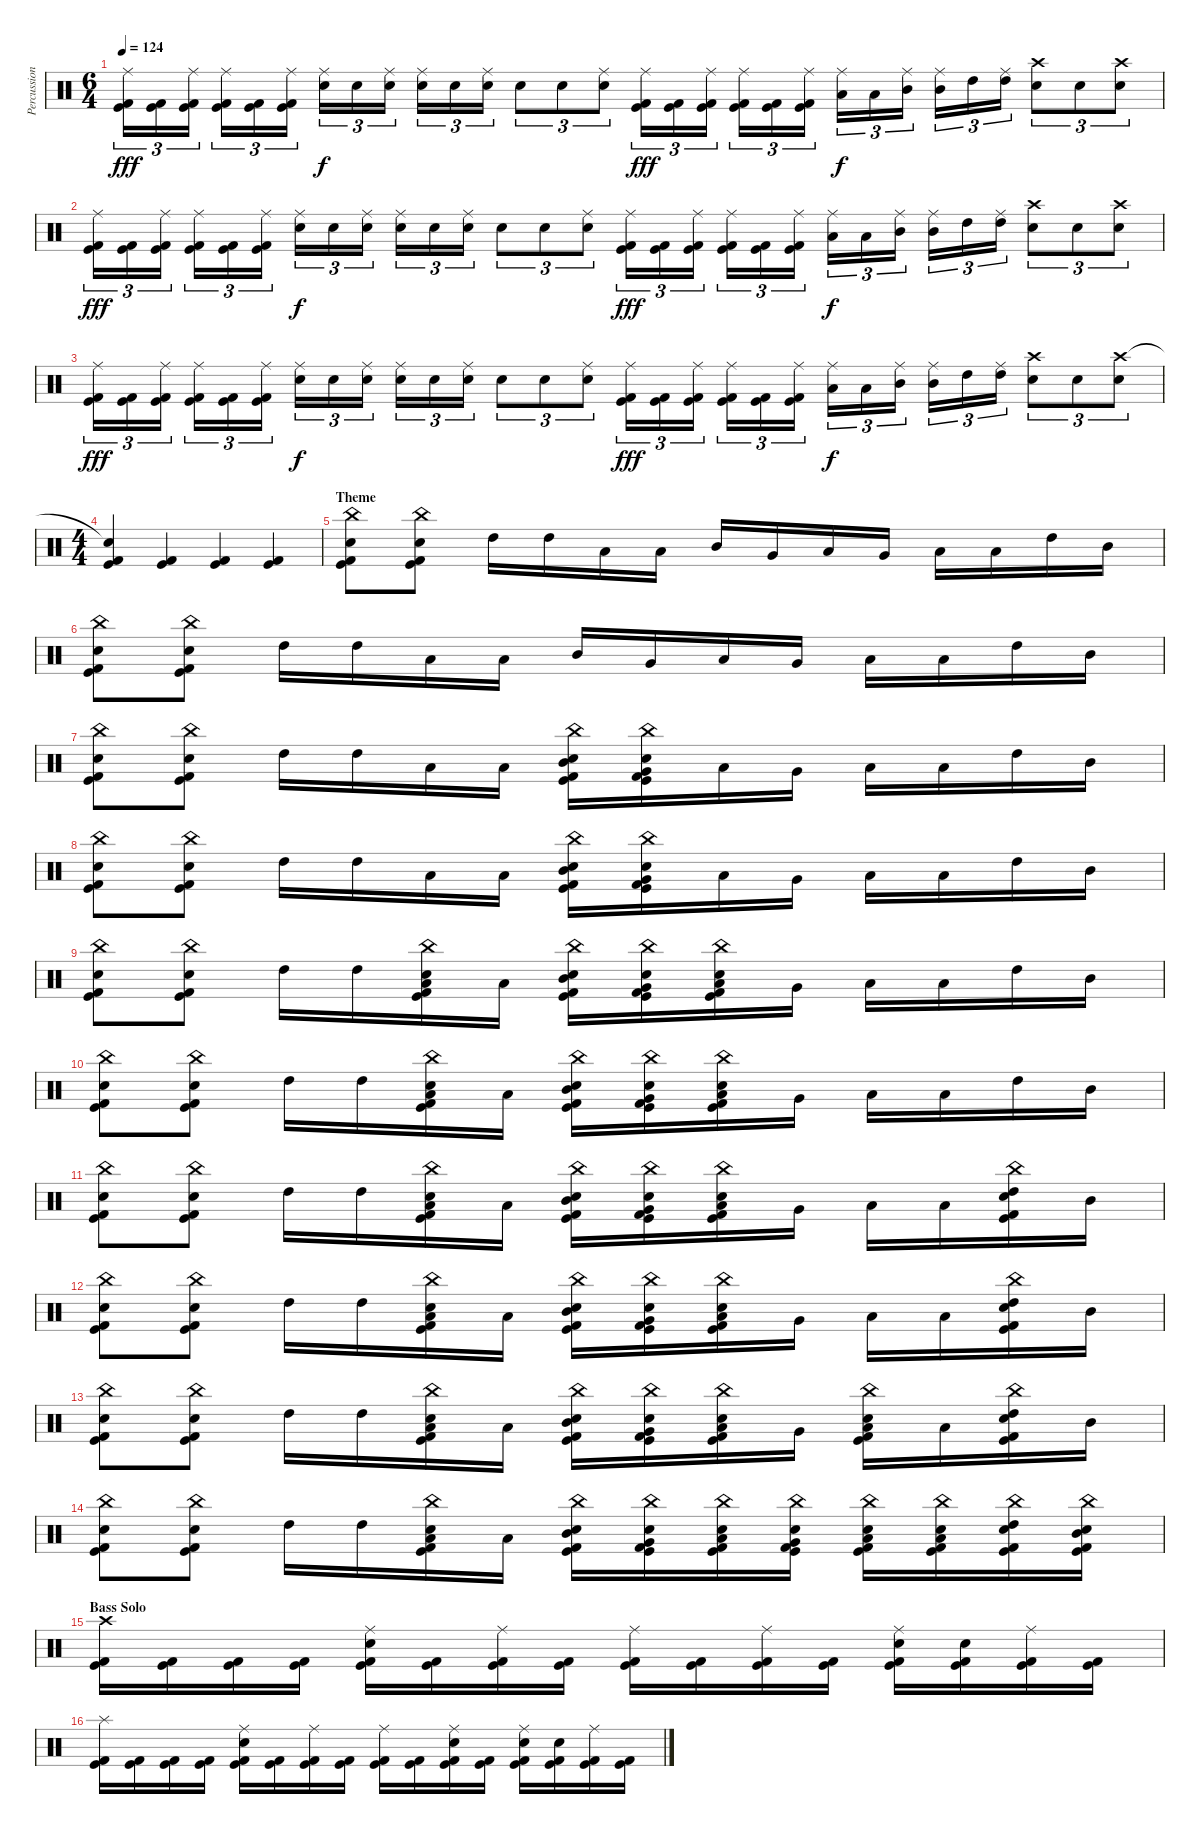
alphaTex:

\track ("Percussion" "Percussion") {instrument percussion}
\staff {score}
\articulation defaults
\ts (6 4)
\tempo 124
\clef neutral
\ks c
("Ride (middle)" "Kick (hit) 2" "Kick (hit)").16{tu (3 2) dy fff} ("Kick (hit) 2" "Kick (hit)").16{tu (3 2)} ("Ride (middle)" "Kick (hit) 2" "Kick (hit)").16{tu (3 2)} ("Ride (middle)" "Kick (hit) 2" "Kick (hit)").16{tu (3 2)} ("Kick (hit) 2" "Kick (hit)").16{tu (3 2)} ("Ride (middle)" "Kick (hit) 2" "Kick (hit)").16{tu (3 2)} ("Ride (middle)" "Snare (hit) 2").16{tu (3 2) dy f} "Snare (hit) 2".16{tu (3 2)} ("Ride (middle)" "Snare (hit) 2").16{tu (3 2)} ("Ride (middle)" "Snare (hit) 2").16{tu (3 2)} "Snare (hit) 2".16{tu (3 2)} ("Ride (middle)" "Snare (hit) 2").16{tu (3 2)} "Snare (hit) 2".8{tu (3 2)} "Snare (hit) 2".8{tu (3 2)} ("Ride (middle)" "Snare (hit) 2").8{tu (3 2)} ("Ride (middle)" "Kick (hit) 2" "Kick (hit)").16{tu (3 2) dy fff} ("Kick (hit) 2" "Kick (hit)").16{tu (3 2)} ("Ride (middle)" "Kick (hit) 2" "Kick (hit)").16{tu (3 2)} ("Ride (middle)" "Kick (hit) 2" "Kick (hit)").16{tu (3 2)} ("Kick (hit) 2" "Kick (hit)").16{tu (3 2)} ("Ride (middle)" "Kick (hit) 2" "Kick (hit)").16{tu (3 2)} ("Ride (middle)" "Low Tom (hit)").16{tu (3 2) dy f} "Low Tom (hit)".16{tu (3 2)} ("Ride (middle)" "Mid Tom (hit)").16{tu (3 2)} ("Ride (middle)" "Mid Tom (hit)").16{tu (3 2)} "High Tom (hit)".16{tu (3 2)} ("Ride (middle)" "High Tom (hit)").16{tu (3 2)} ("Crash high (hit)" "Snare (hit) 2").8{tu (3 2)} "Snare (hit) 2".8{tu (3 2)} ("Crash high (hit)" "Snare (hit) 2").8{tu (3 2)} |
("Ride (middle)" "Kick (hit) 2" "Kick (hit)").16{tu (3 2) dy fff} ("Kick (hit) 2" "Kick (hit)").16{tu (3 2)} ("Ride (middle)" "Kick (hit) 2" "Kick (hit)").16{tu (3 2)} ("Ride (middle)" "Kick (hit) 2" "Kick (hit)").16{tu (3 2)} ("Kick (hit) 2" "Kick (hit)").16{tu (3 2)} ("Ride (middle)" "Kick (hit) 2" "Kick (hit)").16{tu (3 2)} ("Ride (middle)" "Snare (hit) 2").16{tu (3 2) dy f} "Snare (hit) 2".16{tu (3 2)} ("Ride (middle)" "Snare (hit) 2").16{tu (3 2)} ("Ride (middle)" "Snare (hit) 2").16{tu (3 2)} "Snare (hit) 2".16{tu (3 2)} ("Ride (middle)" "Snare (hit) 2").16{tu (3 2)} "Snare (hit) 2".8{tu (3 2)} "Snare (hit) 2".8{tu (3 2)} ("Ride (middle)" "Snare (hit) 2").8{tu (3 2)} ("Ride (middle)" "Kick (hit) 2" "Kick (hit)").16{tu (3 2) dy fff} ("Kick (hit) 2" "Kick (hit)").16{tu (3 2)} ("Ride (middle)" "Kick (hit) 2" "Kick (hit)").16{tu (3 2)} ("Ride (middle)" "Kick (hit) 2" "Kick (hit)").16{tu (3 2)} ("Kick (hit) 2" "Kick (hit)").16{tu (3 2)} ("Ride (middle)" "Kick (hit) 2" "Kick (hit)").16{tu (3 2)} ("Ride (middle)" "Low Tom (hit)").16{tu (3 2) dy f} "Low Tom (hit)".16{tu (3 2)} ("Ride (middle)" "Mid Tom (hit)").16{tu (3 2)} ("Ride (middle)" "Mid Tom (hit)").16{tu (3 2)} "High Tom (hit)".16{tu (3 2)} ("Ride (middle)" "High Tom (hit)").16{tu (3 2)} ("Crash high (hit)" "Snare (hit) 2").8{tu (3 2)} "Snare (hit) 2".8{tu (3 2)} ("Crash high (hit)" "Snare (hit) 2").8{tu (3 2)} |
("Ride (middle)" "Kick (hit) 2" "Kick (hit)").16{tu (3 2) dy fff} ("Kick (hit) 2" "Kick (hit)").16{tu (3 2)} ("Ride (middle)" "Kick (hit) 2" "Kick (hit)").16{tu (3 2)} ("Ride (middle)" "Kick (hit) 2" "Kick (hit)").16{tu (3 2)} ("Kick (hit) 2" "Kick (hit)").16{tu (3 2)} ("Ride (middle)" "Kick (hit) 2" "Kick (hit)").16{tu (3 2)} ("Ride (middle)" "Snare (hit) 2").16{tu (3 2) dy f} "Snare (hit) 2".16{tu (3 2)} ("Ride (middle)" "Snare (hit) 2").16{tu (3 2)} ("Ride (middle)" "Snare (hit) 2").16{tu (3 2)} "Snare (hit) 2".16{tu (3 2)} ("Ride (middle)" "Snare (hit) 2").16{tu (3 2)} "Snare (hit) 2".8{tu (3 2)} "Snare (hit) 2".8{tu (3 2)} ("Ride (middle)" "Snare (hit) 2").8{tu (3 2)} ("Ride (middle)" "Kick (hit) 2" "Kick (hit)").16{tu (3 2) dy fff} ("Kick (hit) 2" "Kick (hit)").16{tu (3 2)} ("Ride (middle)" "Kick (hit) 2" "Kick (hit)").16{tu (3 2)} ("Ride (middle)" "Kick (hit) 2" "Kick (hit)").16{tu (3 2)} ("Kick (hit) 2" "Kick (hit)").16{tu (3 2)} ("Ride (middle)" "Kick (hit) 2" "Kick (hit)").16{tu (3 2)} ("Ride (middle)" "Low Tom (hit)").16{tu (3 2) dy f} "Low Tom (hit)".16{tu (3 2)} ("Ride (middle)" "Mid Tom (hit)").16{tu (3 2)} ("Ride (middle)" "Mid Tom (hit)").16{tu (3 2)} "High Tom (hit)".16{tu (3 2)} ("Ride (middle)" "High Tom (hit)").16{tu (3 2)} ("Crash high (hit)" "Snare (hit) 2").8{tu (3 2)} "Snare (hit) 2".8{tu (3 2)} ("Crash high (hit)" "Snare (hit) 2").8{tu (3 2)} |
\ts (4 4)
("Snare (hit)"{t} "Kick (hit) 2" "Kick (hit)").4 ("Kick (hit) 2" "Kick (hit)").4 ("Kick (hit) 2" "Kick (hit)").4 ("Kick (hit) 2" "Kick (hit)").4 |
\section ("" "Theme")
("China (hit)" "Snare (hit) 2" "Kick (hit) 2" "Kick (hit)").8 ("China (hit)" "Snare (hit) 2" "Kick (hit) 2" "Kick (hit)").8 "High Tom (hit)".16 "High Tom (hit)".16 "Low Tom (hit)".16 "Low Tom (hit)".16 "Mid Tom (hit)".16 "Very Low Tom (hit)".16 "Low Floor Tom (hit)".16 "Very Low Tom (hit)".16 "Low Tom (hit)".16 "Low Tom (hit)".16 "High Tom (hit)".16 "Mid Tom (hit)".16 |
("China (hit)" "Snare (hit) 2" "Kick (hit) 2" "Kick (hit)").8 ("China (hit)" "Snare (hit) 2" "Kick (hit) 2" "Kick (hit)").8 "High Tom (hit)".16 "High Tom (hit)".16 "Low Tom (hit)".16 "Low Tom (hit)".16 "Mid Tom (hit)".16 "Very Low Tom (hit)".16 "Low Floor Tom (hit)".16 "Very Low Tom (hit)".16 "Low Tom (hit)".16 "Low Tom (hit)".16 "High Tom (hit)".16 "Mid Tom (hit)".16 |
("China (hit)" "Snare (hit) 2" "Kick (hit) 2" "Kick (hit)").8 ("China (hit)" "Snare (hit) 2" "Kick (hit) 2" "Kick (hit)").8 "High Tom (hit)".16 "High Tom (hit)".16 "Low Tom (hit)".16 "Low Tom (hit)".16 ("China (hit)" "Snare (hit) 2" "Mid Tom (hit)" "Kick (hit) 2" "Kick (hit)").16 ("China (hit)" "Snare (hit) 2" "Very Low Tom (hit)" "Kick (hit) 2" "Kick (hit)").16 "Low Floor Tom (hit)".16 "Very Low Tom (hit)".16 "Low Tom (hit)".16 "Low Tom (hit)".16 "High Tom (hit)".16 "Mid Tom (hit)".16 |
("China (hit)" "Snare (hit) 2" "Kick (hit) 2" "Kick (hit)").8 ("China (hit)" "Snare (hit) 2" "Kick (hit) 2" "Kick (hit)").8 "High Tom (hit)".16 "High Tom (hit)".16 "Low Tom (hit)".16 "Low Tom (hit)".16 ("China (hit)" "Snare (hit) 2" "Mid Tom (hit)" "Kick (hit) 2" "Kick (hit)").16 ("China (hit)" "Snare (hit) 2" "Very Low Tom (hit)" "Kick (hit) 2" "Kick (hit)").16 "Low Floor Tom (hit)".16 "Very Low Tom (hit)".16 "Low Tom (hit)".16 "Low Tom (hit)".16 "High Tom (hit)".16 "Mid Tom (hit)".16 |
("China (hit)" "Snare (hit) 2" "Kick (hit) 2" "Kick (hit)").8 ("China (hit)" "Snare (hit) 2" "Kick (hit) 2" "Kick (hit)").8 "High Tom (hit)".16 "High Tom (hit)".16 ("China (hit)" "Snare (hit) 2" "Low Tom (hit)" "Kick (hit) 2" "Kick (hit)").16 "Low Tom (hit)".16 ("China (hit)" "Snare (hit) 2" "Mid Tom (hit)" "Kick (hit) 2" "Kick (hit)").16 ("China (hit)" "Snare (hit) 2" "Very Low Tom (hit)" "Kick (hit) 2" "Kick (hit)").16 ("China (hit)" "Snare (hit) 2" "Low Floor Tom (hit)" "Kick (hit) 2" "Kick (hit)").16 "Very Low Tom (hit)".16 "Low Tom (hit)".16 "Low Tom (hit)".16 "High Tom (hit)".16 "Mid Tom (hit)".16 |
("China (hit)" "Snare (hit) 2" "Kick (hit) 2" "Kick (hit)").8 ("China (hit)" "Snare (hit) 2" "Kick (hit) 2" "Kick (hit)").8 "High Tom (hit)".16 "High Tom (hit)".16 ("China (hit)" "Snare (hit) 2" "Low Tom (hit)" "Kick (hit) 2" "Kick (hit)").16 "Low Tom (hit)".16 ("China (hit)" "Snare (hit) 2" "Mid Tom (hit)" "Kick (hit) 2" "Kick (hit)").16 ("China (hit)" "Snare (hit) 2" "Very Low Tom (hit)" "Kick (hit) 2" "Kick (hit)").16 ("China (hit)" "Snare (hit) 2" "Low Floor Tom (hit)" "Kick (hit) 2" "Kick (hit)").16 "Very Low Tom (hit)".16 "Low Tom (hit)".16 "Low Tom (hit)".16 "High Tom (hit)".16 "Mid Tom (hit)".16 |
("China (hit)" "Snare (hit) 2" "Kick (hit) 2" "Kick (hit)").8 ("China (hit)" "Snare (hit) 2" "Kick (hit) 2" "Kick (hit)").8 "High Tom (hit)".16 "High Tom (hit)".16 ("China (hit)" "Snare (hit) 2" "Low Tom (hit)" "Kick (hit) 2" "Kick (hit)").16 "Low Tom (hit)".16 ("China (hit)" "Snare (hit) 2" "Mid Tom (hit)" "Kick (hit) 2" "Kick (hit)").16 ("China (hit)" "Snare (hit) 2" "Very Low Tom (hit)" "Kick (hit) 2" "Kick (hit)").16 ("China (hit)" "Snare (hit) 2" "Low Floor Tom (hit)" "Kick (hit) 2" "Kick (hit)").16 "Very Low Tom (hit)".16 "Low Tom (hit)".16 "Low Tom (hit)".16 ("China (hit)" "Snare (hit) 2" "High Tom (hit)" "Kick (hit) 2" "Kick (hit)").16 "Mid Tom (hit)".16 |
("China (hit)" "Snare (hit) 2" "Kick (hit) 2" "Kick (hit)").8 ("China (hit)" "Snare (hit) 2" "Kick (hit) 2" "Kick (hit)").8 "High Tom (hit)".16 "High Tom (hit)".16 ("China (hit)" "Snare (hit) 2" "Low Tom (hit)" "Kick (hit) 2" "Kick (hit)").16 "Low Tom (hit)".16 ("China (hit)" "Snare (hit) 2" "Mid Tom (hit)" "Kick (hit) 2" "Kick (hit)").16 ("China (hit)" "Snare (hit) 2" "Very Low Tom (hit)" "Kick (hit) 2" "Kick (hit)").16 ("China (hit)" "Snare (hit) 2" "Low Floor Tom (hit)" "Kick (hit) 2" "Kick (hit)").16 "Very Low Tom (hit)".16 "Low Tom (hit)".16 "Low Tom (hit)".16 ("China (hit)" "Snare (hit) 2" "High Tom (hit)" "Kick (hit) 2" "Kick (hit)").16 "Mid Tom (hit)".16 |
("China (hit)" "Snare (hit) 2" "Kick (hit) 2" "Kick (hit)").8 ("China (hit)" "Snare (hit) 2" "Kick (hit) 2" "Kick (hit)").8 "High Tom (hit)".16 "High Tom (hit)".16 ("China (hit)" "Snare (hit) 2" "Low Tom (hit)" "Kick (hit) 2" "Kick (hit)").16 "Low Tom (hit)".16 ("China (hit)" "Snare (hit) 2" "Mid Tom (hit)" "Kick (hit) 2" "Kick (hit)").16 ("China (hit)" "Snare (hit) 2" "Very Low Tom (hit)" "Kick (hit) 2" "Kick (hit)").16 ("China (hit)" "Snare (hit) 2" "Low Floor Tom (hit)" "Kick (hit) 2" "Kick (hit)").16 "Very Low Tom (hit)".16 ("China (hit)" "Snare (hit) 2" "Low Tom (hit)" "Kick (hit) 2" "Kick (hit)").16 "Low Tom (hit)".16 ("China (hit)" "Snare (hit) 2" "High Tom (hit)" "Kick (hit) 2" "Kick (hit)").16 "Mid Tom (hit)".16 |
("China (hit)" "Snare (hit) 2" "Kick (hit) 2" "Kick (hit)").8 ("China (hit)" "Snare (hit) 2" "Kick (hit) 2" "Kick (hit)").8 "High Tom (hit)".16 "High Tom (hit)".16 ("China (hit)" "Snare (hit) 2" "Low Tom (hit)" "Kick (hit) 2" "Kick (hit)").16 "Low Tom (hit)".16 ("China (hit)" "Snare (hit) 2" "Mid Tom (hit)" "Kick (hit) 2" "Kick (hit)").16 ("China (hit)" "Snare (hit) 2" "Very Low Tom (hit)" "Kick (hit) 2" "Kick (hit)").16 ("China (hit)" "Snare (hit) 2" "Low Floor Tom (hit)" "Kick (hit) 2" "Kick (hit)").16 ("China (hit)" "Snare (hit) 2" "Very Low Tom (hit)" "Kick (hit) 2" "Kick (hit)").16 ("China (hit)" "Snare (hit) 2" "Low Tom (hit)" "Kick (hit) 2" "Kick (hit)").16 ("China (hit)" "Snare (hit) 2" "Low Tom (hit)" "Kick (hit) 2" "Kick (hit)").16 ("China (hit)" "Snare (hit) 2" "High Tom (hit)" "Kick (hit) 2" "Kick (hit)").16 ("China (hit)" "Snare (hit) 2" "Mid Tom (hit)" "Kick (hit) 2" "Kick (hit)").16 |
\section ("" "Bass Solo")
("Crash high (hit)" "Kick (hit) 2" "Kick (hit)").16 ("Kick (hit) 2" "Kick (hit)").16 ("Kick (hit) 2" "Kick (hit)").16 ("Kick (hit) 2" "Kick (hit)").16 ("Ride (middle)" "Snare (hit) 2" "Kick (hit) 2" "Kick (hit)").16 ("Kick (hit) 2" "Kick (hit)").16 ("Ride (middle)" "Kick (hit) 2" "Kick (hit)").16 ("Kick (hit) 2" "Kick (hit)").16 ("Ride (middle)" "Kick (hit) 2" "Kick (hit)").16 ("Kick (hit) 2" "Kick (hit)").16 ("Ride (middle)" "Kick (hit) 2" "Kick (hit)").16 ("Kick (hit) 2" "Kick (hit)").16 ("Ride (middle)" "Snare (hit) 2" "Kick (hit) 2" "Kick (hit)").16 ("Snare (hit) 2" "Kick (hit) 2" "Kick (hit)").16 ("Ride (middle)" "Kick (hit) 2" "Kick (hit)").16 ("Kick (hit) 2" "Kick (hit)").16 |
("Splash (hit)" "Kick (hit) 2" "Kick (hit)").16 ("Kick (hit) 2" "Kick (hit)").16 ("Kick (hit) 2" "Kick (hit)").16 ("Kick (hit) 2" "Kick (hit)").16 ("Ride (middle)" "Snare (hit) 2" "Kick (hit) 2" "Kick (hit)").16 ("Kick (hit) 2" "Kick (hit)").16 ("Ride (middle)" "Kick (hit) 2" "Kick (hit)").16 ("Kick (hit) 2" "Kick (hit)").16 ("Ride (middle)" "Kick (hit) 2" "Kick (hit)").16 ("Kick (hit) 2" "Kick (hit)").16 ("Ride (middle)" "Snare (hit) 2" "Kick (hit) 2" "Kick (hit)").16 ("Kick (hit) 2" "Kick (hit)").16 ("Ride (middle)" "Snare (hit) 2" "Kick (hit) 2" "Kick (hit)").16 ("Snare (hit) 2" "Kick (hit) 2" "Kick (hit)").16 ("Ride (middle)" "Kick (hit) 2" "Kick (hit)").16 ("Kick (hit) 2" "Kick (hit)").16
